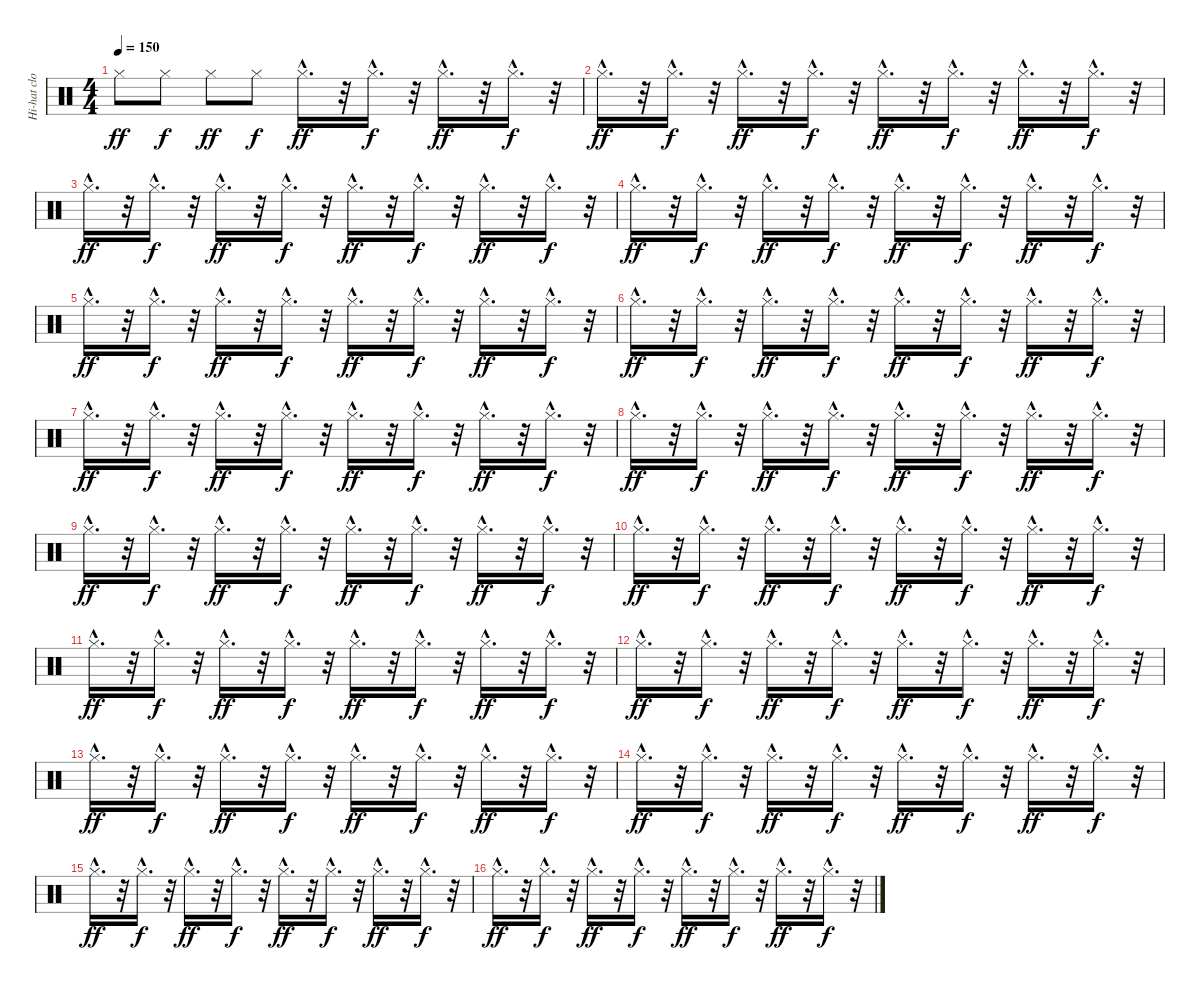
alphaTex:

\track ("Hi-hat closed" "Hi-hat clo") {instrument percussion}
\staff {score}
\articulation defaults
\ts (4 4)
\tempo 150
\clef neutral
\ks c "Hi-Hat (closed)".8{dy ff} "Hi-Hat (closed)".8{dy f} "Hi-Hat (closed)".8{dy ff} "Hi-Hat (closed)".8{dy f} "Hi-Hat (closed)"{hac}.16{d dy ff}
r.32 "Hi-Hat (closed)"{hac}.16{d dy f} r.32 "Hi-Hat (closed)"{hac}.16{d dy ff} r.32 "Hi-Hat (closed)"{hac}.16{d dy f} r.32 |
"Hi-Hat (closed)"{hac}.16{d dy ff} r.32 "Hi-Hat (closed)"{hac}.16{d dy f} r.32 "Hi-Hat (closed)"{hac}.16{d dy ff} r.32 "Hi-Hat (closed)"{hac}.16{d dy f} r.32 "Hi-Hat (closed)"{hac}.16{d dy ff} r.32 "Hi-Hat (closed)"{hac}.16{d dy f} r.32 "Hi-Hat (closed)"{hac}.16{d dy ff} r.32 "Hi-Hat (closed)"{hac}.16{d dy f} r.32 |
"Hi-Hat (closed)"{hac}.16{d dy ff} r.32 "Hi-Hat (closed)"{hac}.16{d dy f} r.32 "Hi-Hat (closed)"{hac}.16{d dy ff} r.32 "Hi-Hat (closed)"{hac}.16{d dy f} r.32 "Hi-Hat (closed)"{hac}.16{d dy ff} r.32 "Hi-Hat (closed)"{hac}.16{d dy f} r.32 "Hi-Hat (closed)"{hac}.16{d dy ff} r.32 "Hi-Hat (closed)"{hac}.16{d dy f} r.32 |
"Hi-Hat (closed)"{hac}.16{d dy ff} r.32 "Hi-Hat (closed)"{hac}.16{d dy f} r.32 "Hi-Hat (closed)"{hac}.16{d dy ff} r.32 "Hi-Hat (closed)"{hac}.16{d dy f} r.32 "Hi-Hat (closed)"{hac}.16{d dy ff} r.32 "Hi-Hat (closed)"{hac}.16{d dy f} r.32 "Hi-Hat (closed)"{hac}.16{d dy ff} r.32 "Hi-Hat (closed)"{hac}.16{d dy f} r.32 |
"Hi-Hat (closed)"{hac}.16{d dy ff} r.32 "Hi-Hat (closed)"{hac}.16{d dy f} r.32 "Hi-Hat (closed)"{hac}.16{d dy ff} r.32 "Hi-Hat (closed)"{hac}.16{d dy f} r.32 "Hi-Hat (closed)"{hac}.16{d dy ff} r.32 "Hi-Hat (closed)"{hac}.16{d dy f} r.32 "Hi-Hat (closed)"{hac}.16{d dy ff} r.32 "Hi-Hat (closed)"{hac}.16{d dy f} r.32 |
"Hi-Hat (closed)"{hac}.16{d dy ff} r.32 "Hi-Hat (closed)"{hac}.16{d dy f} r.32 "Hi-Hat (closed)"{hac}.16{d dy ff} r.32 "Hi-Hat (closed)"{hac}.16{d dy f} r.32 "Hi-Hat (closed)"{hac}.16{d dy ff} r.32 "Hi-Hat (closed)"{hac}.16{d dy f} r.32 "Hi-Hat (closed)"{hac}.16{d dy ff} r.32 "Hi-Hat (closed)"{hac}.16{d dy f} r.32 |
"Hi-Hat (closed)"{hac}.16{d dy ff} r.32 "Hi-Hat (closed)"{hac}.16{d dy f} r.32 "Hi-Hat (closed)"{hac}.16{d dy ff} r.32 "Hi-Hat (closed)"{hac}.16{d dy f} r.32 "Hi-Hat (closed)"{hac}.16{d dy ff} r.32 "Hi-Hat (closed)"{hac}.16{d dy f} r.32 "Hi-Hat (closed)"{hac}.16{d dy ff} r.32 "Hi-Hat (closed)"{hac}.16{d dy f} r.32 |
"Hi-Hat (closed)"{hac}.16{d dy ff} r.32 "Hi-Hat (closed)"{hac}.16{d dy f} r.32 "Hi-Hat (closed)"{hac}.16{d dy ff} r.32 "Hi-Hat (closed)"{hac}.16{d dy f} r.32 "Hi-Hat (closed)"{hac}.16{d dy ff} r.32 "Hi-Hat (closed)"{hac}.16{d dy f} r.32 "Hi-Hat (closed)"{hac}.16{d dy ff} r.32 "Hi-Hat (closed)"{hac}.16{d dy f} r.32 |
"Hi-Hat (closed)"{hac}.16{d dy ff} r.32 "Hi-Hat (closed)"{hac}.16{d dy f} r.32 "Hi-Hat (closed)"{hac}.16{d dy ff} r.32 "Hi-Hat (closed)"{hac}.16{d dy f} r.32 "Hi-Hat (closed)"{hac}.16{d dy ff} r.32 "Hi-Hat (closed)"{hac}.16{d dy f} r.32 "Hi-Hat (closed)"{hac}.16{d dy ff} r.32 "Hi-Hat (closed)"{hac}.16{d dy f} r.32 |
"Hi-Hat (closed)"{hac}.16{d dy ff} r.32 "Hi-Hat (closed)"{hac}.16{d dy f} r.32 "Hi-Hat (closed)"{hac}.16{d dy ff} r.32 "Hi-Hat (closed)"{hac}.16{d dy f} r.32 "Hi-Hat (closed)"{hac}.16{d dy ff} r.32 "Hi-Hat (closed)"{hac}.16{d dy f} r.32 "Hi-Hat (closed)"{hac}.16{d dy ff} r.32 "Hi-Hat (closed)"{hac}.16{d dy f} r.32 |
"Hi-Hat (closed)"{hac}.16{d dy ff} r.32 "Hi-Hat (closed)"{hac}.16{d dy f} r.32 "Hi-Hat (closed)"{hac}.16{d dy ff} r.32 "Hi-Hat (closed)"{hac}.16{d dy f} r.32 "Hi-Hat (closed)"{hac}.16{d dy ff} r.32 "Hi-Hat (closed)"{hac}.16{d dy f} r.32 "Hi-Hat (closed)"{hac}.16{d dy ff} r.32 "Hi-Hat (closed)"{hac}.16{d dy f} r.32 |
"Hi-Hat (closed)"{hac}.16{d dy ff} r.32 "Hi-Hat (closed)"{hac}.16{d dy f} r.32 "Hi-Hat (closed)"{hac}.16{d dy ff} r.32 "Hi-Hat (closed)"{hac}.16{d dy f} r.32 "Hi-Hat (closed)"{hac}.16{d dy ff} r.32 "Hi-Hat (closed)"{hac}.16{d dy f} r.32 "Hi-Hat (closed)"{hac}.16{d dy ff} r.32 "Hi-Hat (closed)"{hac}.16{d dy f} r.32 |
"Hi-Hat (closed)"{hac}.16{d dy ff} r.32 "Hi-Hat (closed)"{hac}.16{d dy f} r.32 "Hi-Hat (closed)"{hac}.16{d dy ff} r.32 "Hi-Hat (closed)"{hac}.16{d dy f} r.32 "Hi-Hat (closed)"{hac}.16{d dy ff} r.32 "Hi-Hat (closed)"{hac}.16{d dy f} r.32 "Hi-Hat (closed)"{hac}.16{d dy ff} r.32 "Hi-Hat (closed)"{hac}.16{d dy f} r.32 |
"Hi-Hat (closed)"{hac}.16{d dy ff} r.32 "Hi-Hat (closed)"{hac}.16{d dy f} r.32 "Hi-Hat (closed)"{hac}.16{d dy ff} r.32 "Hi-Hat (closed)"{hac}.16{d dy f} r.32 "Hi-Hat (closed)"{hac}.16{d dy ff} r.32 "Hi-Hat (closed)"{hac}.16{d dy f} r.32 "Hi-Hat (closed)"{hac}.16{d dy ff} r.32 "Hi-Hat (closed)"{hac}.16{d dy f} r.32 |
"Hi-Hat (closed)"{hac}.16{d dy ff} r.32 "Hi-Hat (closed)"{hac}.16{d dy f} r.32 "Hi-Hat (closed)"{hac}.16{d dy ff} r.32 "Hi-Hat (closed)"{hac}.16{d dy f} r.32 "Hi-Hat (closed)"{hac}.16{d dy ff} r.32 "Hi-Hat (closed)"{hac}.16{d dy f} r.32 "Hi-Hat (closed)"{hac}.16{d dy ff} r.32 "Hi-Hat (closed)"{hac}.16{d dy f} r.32 |
"Hi-Hat (closed)"{hac}.16{d dy ff} r.32 "Hi-Hat (closed)"{hac}.16{d dy f} r.32 "Hi-Hat (closed)"{hac}.16{d dy ff} r.32 "Hi-Hat (closed)"{hac}.16{d dy f} r.32 "Hi-Hat (closed)"{hac}.16{d dy ff} r.32 "Hi-Hat (closed)"{hac}.16{d dy f} r.32 "Hi-Hat (closed)"{hac}.16{d dy ff} r.32 "Hi-Hat (closed)"{hac}.16{d dy f} r.32
